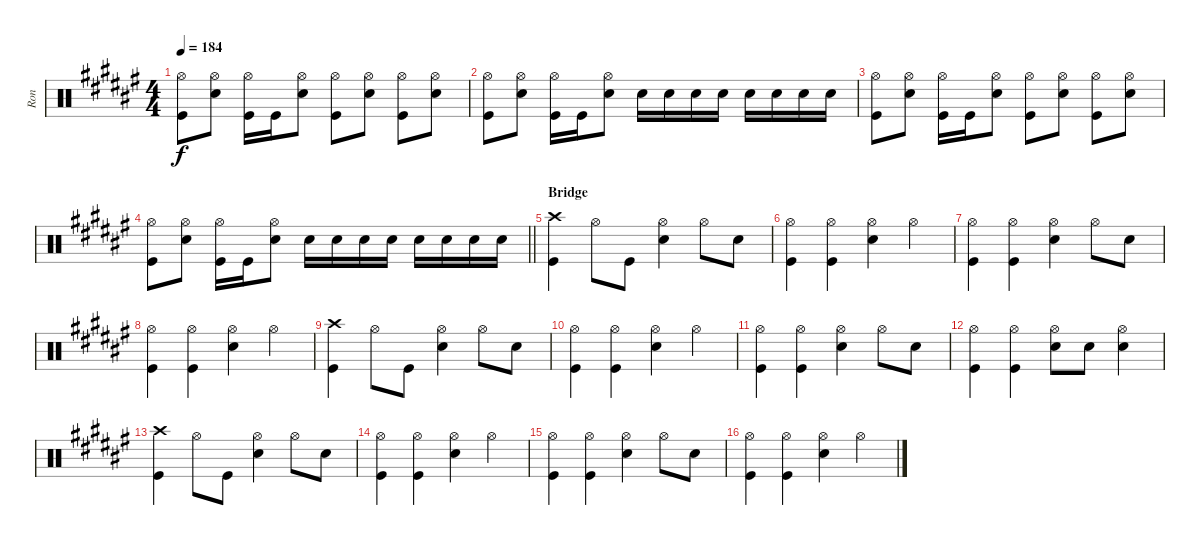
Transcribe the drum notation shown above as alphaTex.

\track ("Ron" "Ron") {instrument percussion}
\staff {score}
\articulation defaults
\ts (4 4)
\tempo 184
\clef neutral
\ks f#
("Kick (hit)" "Hi-Hat (open)").8{dy f} ("Electric Snare (hit)" "Hi-Hat (open)").8 ("Kick (hit)" "Hi-Hat (open)").16 "Kick (hit)".16 ("Electric Snare (hit)" "Hi-Hat (open)").8 ("Kick (hit)" "Hi-Hat (open)").8 ("Electric Snare (hit)" "Hi-Hat (open)").8 ("Kick (hit)" "Hi-Hat (open)").8 ("Electric Snare (hit)" "Hi-Hat (open)").8 |
("Kick (hit)" "Hi-Hat (open)").8 ("Electric Snare (hit)" "Hi-Hat (open)").8 ("Kick (hit)" "Hi-Hat (open)").16 "Kick (hit)".16 ("Electric Snare (hit)" "Hi-Hat (open)").8 "Electric Snare (hit)".16 "Electric Snare (hit)".16 "Electric Snare (hit)".16 "Electric Snare (hit)".16 "Electric Snare (hit)".16 "Electric Snare (hit)".16 "Electric Snare (hit)".16 "Electric Snare (hit)".16 |
("Kick (hit)" "Hi-Hat (open)").8 ("Electric Snare (hit)" "Hi-Hat (open)").8 ("Kick (hit)" "Hi-Hat (open)").16 "Kick (hit)".16 ("Electric Snare (hit)" "Hi-Hat (open)").8 ("Kick (hit)" "Hi-Hat (open)").8 ("Electric Snare (hit)" "Hi-Hat (open)").8 ("Kick (hit)" "Hi-Hat (open)").8 ("Electric Snare (hit)" "Hi-Hat (open)").8 |
\barLineRight lightlight
("Kick (hit)" "Hi-Hat (open)").8 ("Electric Snare (hit)" "Hi-Hat (open)").8 ("Kick (hit)" "Hi-Hat (open)").16 "Kick (hit)".16 ("Electric Snare (hit)" "Hi-Hat (open)").8 "Electric Snare (hit)".16 "Electric Snare (hit)".16 "Electric Snare (hit)".16 "Electric Snare (hit)".16 "Electric Snare (hit)".16 "Electric Snare (hit)".16 "Electric Snare (hit)".16 "Electric Snare (hit)".16 |
\section ("" "Bridge")
("Kick (hit)" "Crash high (hit)").4 "Hi-Hat (open)".8 "Kick (hit)".8 ("Electric Snare (hit)" "Hi-Hat (open)").4 "Hi-Hat (open)".8 "Electric Snare (hit)".8 |
("Kick (hit)" "Hi-Hat (open)").4 ("Kick (hit)" "Hi-Hat (open)").4 ("Electric Snare (hit)" "Hi-Hat (open)").4 "Hi-Hat (open)".4 |
("Kick (hit)" "Hi-Hat (open)").4 ("Kick (hit)" "Hi-Hat (open)").4 ("Electric Snare (hit)" "Hi-Hat (open)").4 "Hi-Hat (open)".8 "Electric Snare (hit)".8 |
("Kick (hit)" "Hi-Hat (open)").4 ("Kick (hit)" "Hi-Hat (open)").4 ("Electric Snare (hit)" "Hi-Hat (open)").4 "Hi-Hat (open)".4 |
("Kick (hit)" "Crash high (hit)").4 "Hi-Hat (open)".8 "Kick (hit)".8 ("Electric Snare (hit)" "Hi-Hat (open)").4 "Hi-Hat (open)".8 "Electric Snare (hit)".8 |
("Kick (hit)" "Hi-Hat (open)").4 ("Kick (hit)" "Hi-Hat (open)").4 ("Electric Snare (hit)" "Hi-Hat (open)").4 "Hi-Hat (open)".4 |
("Kick (hit)" "Hi-Hat (open)").4 ("Kick (hit)" "Hi-Hat (open)").4 ("Electric Snare (hit)" "Hi-Hat (open)").4 "Hi-Hat (open)".8 "Electric Snare (hit)".8 |
("Kick (hit)" "Hi-Hat (open)").4 ("Kick (hit)" "Hi-Hat (open)").4 ("Electric Snare (hit)" "Hi-Hat (open)").8 "Electric Snare (hit)".8 ("Electric Snare (hit)" "Hi-Hat (open)").4 |
("Kick (hit)" "Crash high (hit)").4 "Hi-Hat (open)".8 "Kick (hit)".8 ("Electric Snare (hit)" "Hi-Hat (open)").4 "Hi-Hat (open)".8 "Electric Snare (hit)".8 |
("Kick (hit)" "Hi-Hat (open)").4 ("Kick (hit)" "Hi-Hat (open)").4 ("Electric Snare (hit)" "Hi-Hat (open)").4 "Hi-Hat (open)".4 |
("Kick (hit)" "Hi-Hat (open)").4 ("Kick (hit)" "Hi-Hat (open)").4 ("Electric Snare (hit)" "Hi-Hat (open)").4 "Hi-Hat (open)".8 "Electric Snare (hit)".8 |
("Kick (hit)" "Hi-Hat (open)").4 ("Kick (hit)" "Hi-Hat (open)").4 ("Electric Snare (hit)" "Hi-Hat (open)").4 "Hi-Hat (open)".4
